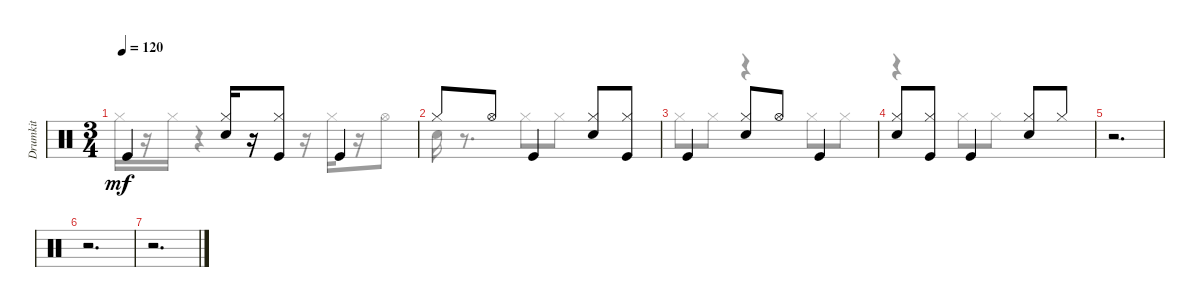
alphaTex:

\track ("Drumkit" "Drumkit") {instrument percussion}
\staff {score}
\articulation defaults
\voice
\ts (3 4)
\tempo 120
\clef neutral
\ks aminor "Kick (hit)".4{dy mf}
("Hi-Hat (closed)" "Snare (hit) 2").16 r.16 ("Kick (hit)" "Hi-Hat (closed)").8 "Kick (hit)".4 |
"Hi-Hat (closed)".8 "Hi-Hat (open)".8 "Kick (hit)".4 ("Hi-Hat (closed)" "Snare (hit) 2").8 ("Hi-Hat (closed)" "Kick (hit)").8 |
"Kick (hit)".4 ("Snare (hit) 2" "Hi-Hat (closed)").8 "Hi-Hat (open)".8 "Kick (hit)".4 |
("Snare (hit) 2" "Hi-Hat (closed)").8 ("Hi-Hat (closed)" "Kick (hit)").8 "Kick (hit)".4 ("Snare (hit) 2" "Hi-Hat (closed)").8 "Hi-Hat (closed)".8 |
r.2{d} |
r.2{d} |
r.2{d}
\voice
\clef neutral
\ottava regular
\simile none
\ks aminor "Hi-Hat (closed)".16{dy mf}
r.16 "Hi-Hat (closed)".16 r.4 r.16 "Hi-Hat (closed)".16 r.16 "Hi-Hat (open)".8 |
"Snare (hit) 2".16 r.8{d} "Hi-Hat (closed)".8 "Hi-Hat (closed)".8 |
"Hi-Hat (closed)".8 "Hi-Hat (closed)".8 r.4 "Hi-Hat (closed)".8 "Hi-Hat (closed)".8 |
r.4 "Hi-Hat (closed)".8 "Hi-Hat (closed)".8 |
|
|
